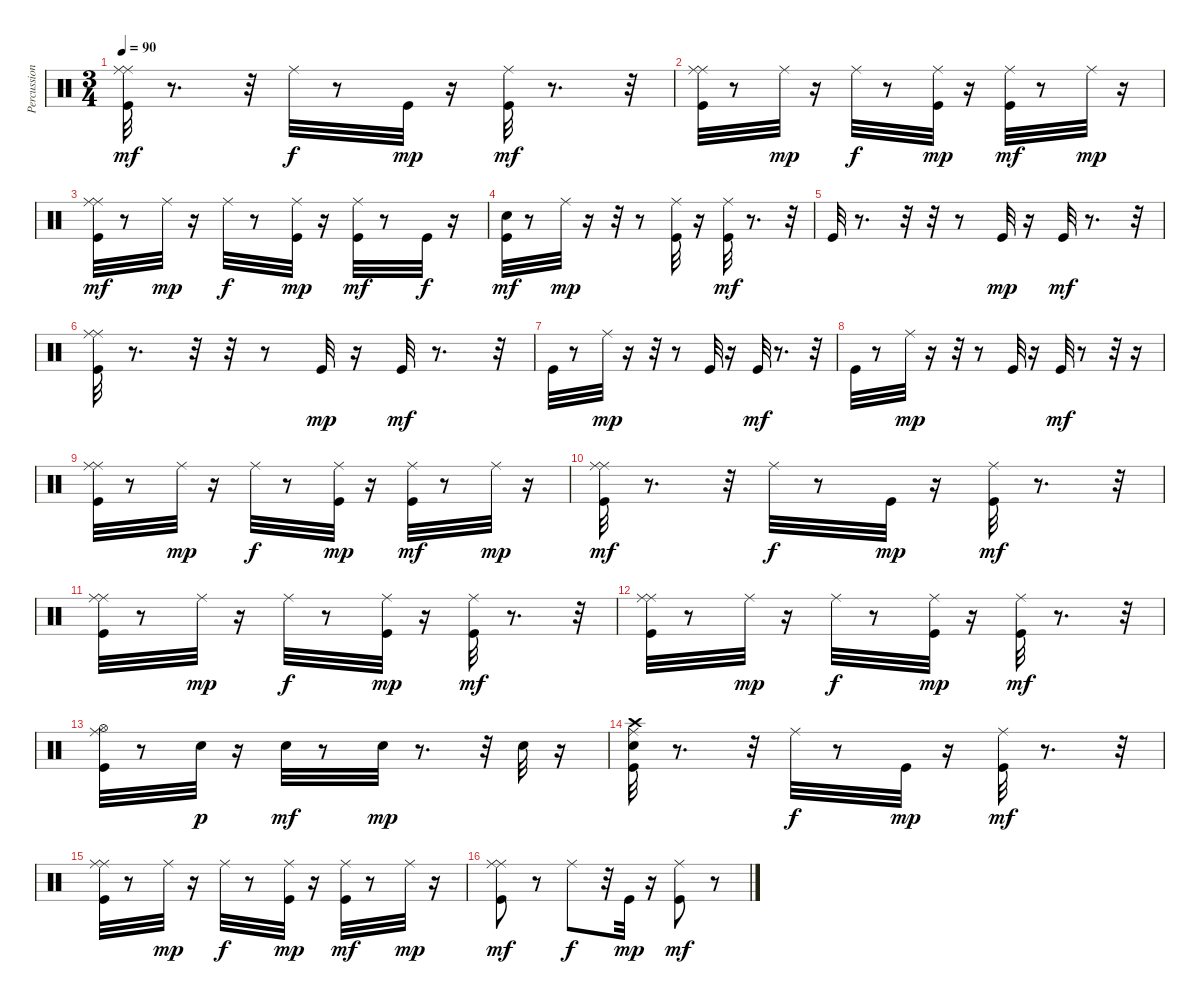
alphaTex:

\track ("Percussion" "Percussion") {instrument percussion}
\staff {score}
\articulation defaults
\ts (3 4)
\tempo 90
\clef neutral
\ks c
("Ride (middle)" "Kick (hit)" "Ride (middle)").32{dy mf} r.8{d} r.32 "Ride (middle)".32{dy f} r.8 "Kick (hit)".32{dy mp} r.16 ("Kick (hit)" "Ride (middle)").32{dy mf} r.8{d} r.32 |
("Ride (middle)" "Kick (hit)" "Ride (middle)").32 r.8 "Ride (middle)".32{dy mp} r.16 "Ride (middle)".32{dy f} r.8 ("Kick (hit)" "Ride (middle)").32{dy mp} r.16 ("Kick (hit)" "Ride (middle)").32{dy mf} r.8 "Ride (middle)".32{dy mp} r.16 |
("Ride (middle)" "Kick (hit)" "Ride (middle)").32{dy mf} r.8 "Ride (middle)".32{dy mp} r.16 "Ride (middle)".32{dy f} r.8 ("Kick (hit)" "Ride (middle)").32{dy mp} r.16 ("Kick (hit)" "Ride (middle)").32{dy mf} r.8 "Kick (hit)".32{dy f} r.16 |
("Snare (hit) 2" "Kick (hit)").32{dy mf} r.8 "Ride (middle)".32{dy mp} r.16 r.32 r.8 ("Kick (hit)" "Ride (middle)").32 r.16 ("Kick (hit)" "Ride (middle)").32{dy mf} r.8{d} r.32 |
"Kick (hit)".32 r.8{d} r.32 r.32 r.8 "Kick (hit)".32{dy mp} r.16 "Kick (hit)".32{dy mf} r.8{d} r.32 |
("Ride (middle)" "Kick (hit)" "Ride (middle)").32 r.8{d} r.32 r.32 r.8 "Kick (hit)".32{dy mp} r.16 "Kick (hit)".32{dy mf} r.8{d} r.32 |
"Kick (hit)".32 r.8 "Ride (middle)".32{dy mp} r.16 r.32 r.8 "Kick (hit)".32 r.16 "Kick (hit)".32{dy mf} r.8{d} r.32 |
"Kick (hit)".32 r.8 "Ride (middle)".32{dy mp} r.16 r.32 r.8 "Kick (hit)".32 r.16 "Kick (hit)".32{dy mf} r.8 r.32 r.16 |
("Ride (middle)" "Kick (hit)" "Ride (middle)").32 r.8 "Ride (middle)".32{dy mp} r.16 "Ride (middle)".32{dy f} r.8 ("Kick (hit)" "Ride (middle)").32{dy mp} r.16 ("Kick (hit)" "Ride (middle)").32{dy mf} r.8 "Ride (middle)".32{dy mp} r.16 |
("Ride (middle)" "Kick (hit)" "Ride (middle)").32{dy mf} r.8{d} r.32 "Ride (middle)".32{dy f} r.8 "Kick (hit)".32{dy mp} r.16 ("Kick (hit)" "Ride (middle)").32{dy mf} r.8{d} r.32 |
("Ride (middle)" "Kick (hit)" "Ride (middle)").32 r.8 "Ride (middle)".32{dy mp} r.16 "Ride (middle)".32{dy f} r.8 ("Kick (hit)" "Ride (middle)").32{dy mp} r.16 ("Kick (hit)" "Ride (middle)").32{dy mf} r.8{d} r.32 |
("Ride (middle)" "Kick (hit)" "Ride (middle)").32 r.8 "Ride (middle)".32{dy mp} r.16 "Ride (middle)".32{dy f} r.8 ("Kick (hit)" "Ride (middle)").32{dy mp} r.16 ("Kick (hit)" "Ride (middle)").32{dy mf} r.8{d} r.32 |
("Ride (middle)" "Kick (hit)" "Hi-Hat (open)").32 r.8 "Snare (hit) 2".32{dy p} r.16 "Snare (hit) 2".32{dy mf} r.8 "Snare (hit) 2".32{dy mp} r.8{d} r.32 "Snare (hit) 2".32 r.16 |
("Snare (hit) 2" "Kick (hit)" "Ride (middle)" "Crash high (hit)").32 r.8{d} r.32 "Ride (middle)".32{dy f} r.8 "Kick (hit)".32{dy mp} r.16 ("Kick (hit)" "Ride (middle)").32{dy mf} r.8{d} r.32 |
("Ride (middle)" "Kick (hit)" "Ride (middle)").32 r.8 "Ride (middle)".32{dy mp} r.16 "Ride (middle)".32{dy f} r.8 ("Kick (hit)" "Ride (middle)").32{dy mp} r.16 ("Kick (hit)" "Ride (middle)").32{dy mf} r.8 "Ride (middle)".32{dy mp} r.16 |
("Ride (middle)" "Kick (hit)" "Ride (middle)").8{dy mf} r.8 "Ride (middle)".8{dy f} r.32 "Kick (hit)".32{dy mp} r.16 ("Kick (hit)" "Ride (middle)").8{dy mf} r.8
